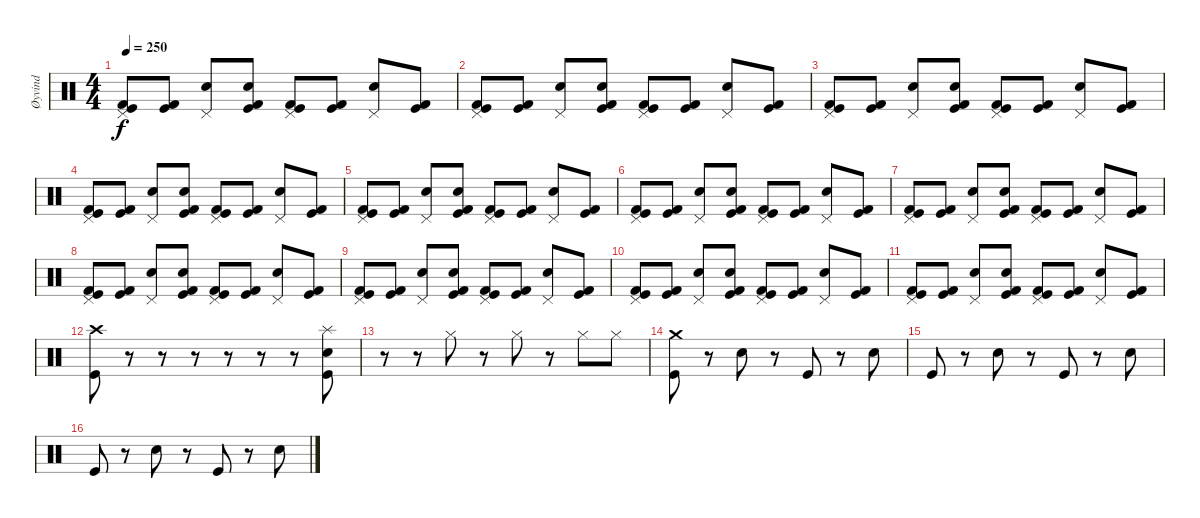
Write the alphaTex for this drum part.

\track ("Øyvind" "Øyvind") {instrument percussion}
\staff {score}
\articulation defaults
\ts (4 4)
\tempo 250
\clef neutral
\ks c
("Kick (hit) 2" "Pedal Hi-Hat (hit)" "Kick (hit)").8{dy f} ("Kick (hit) 2" "Kick (hit)").8 ("Snare (hit) 2" "Pedal Hi-Hat (hit)").8 ("Kick (hit) 2" "Snare (hit)" "Kick (hit)").8 ("Kick (hit) 2" "Pedal Hi-Hat (hit)" "Kick (hit)").8 ("Kick (hit) 2" "Kick (hit)").8 ("Snare (hit) 2" "Pedal Hi-Hat (hit)").8 ("Kick (hit) 2" "Kick (hit)").8 |
("Kick (hit) 2" "Pedal Hi-Hat (hit)" "Kick (hit)").8 ("Kick (hit) 2" "Kick (hit)").8 ("Snare (hit) 2" "Pedal Hi-Hat (hit)").8 ("Kick (hit) 2" "Snare (hit)" "Kick (hit)").8 ("Kick (hit) 2" "Pedal Hi-Hat (hit)" "Kick (hit)").8 ("Kick (hit) 2" "Kick (hit)").8 ("Snare (hit) 2" "Pedal Hi-Hat (hit)").8 ("Kick (hit) 2" "Kick (hit)").8 |
("Kick (hit) 2" "Pedal Hi-Hat (hit)" "Kick (hit)").8 ("Kick (hit) 2" "Kick (hit)").8 ("Snare (hit) 2" "Pedal Hi-Hat (hit)").8 ("Kick (hit) 2" "Snare (hit)" "Kick (hit)").8 ("Kick (hit) 2" "Pedal Hi-Hat (hit)" "Kick (hit)").8 ("Kick (hit) 2" "Kick (hit)").8 ("Snare (hit) 2" "Pedal Hi-Hat (hit)").8 ("Kick (hit) 2" "Kick (hit)").8 |
("Kick (hit) 2" "Pedal Hi-Hat (hit)" "Kick (hit)").8 ("Kick (hit) 2" "Kick (hit)").8 ("Snare (hit) 2" "Pedal Hi-Hat (hit)").8 ("Kick (hit) 2" "Snare (hit)" "Kick (hit)").8 ("Kick (hit) 2" "Pedal Hi-Hat (hit)" "Kick (hit)").8 ("Kick (hit) 2" "Kick (hit)").8 ("Snare (hit) 2" "Pedal Hi-Hat (hit)").8 ("Kick (hit) 2" "Kick (hit)").8 |
("Kick (hit) 2" "Pedal Hi-Hat (hit)" "Kick (hit)").8 ("Kick (hit) 2" "Kick (hit)").8 ("Snare (hit) 2" "Pedal Hi-Hat (hit)").8 ("Kick (hit) 2" "Snare (hit)" "Kick (hit)").8 ("Kick (hit) 2" "Pedal Hi-Hat (hit)" "Kick (hit)").8 ("Kick (hit) 2" "Kick (hit)").8 ("Snare (hit) 2" "Pedal Hi-Hat (hit)").8 ("Kick (hit) 2" "Kick (hit)").8 |
("Kick (hit) 2" "Pedal Hi-Hat (hit)" "Kick (hit)").8 ("Kick (hit) 2" "Kick (hit)").8 ("Snare (hit) 2" "Pedal Hi-Hat (hit)").8 ("Kick (hit) 2" "Snare (hit)" "Kick (hit)").8 ("Kick (hit) 2" "Pedal Hi-Hat (hit)" "Kick (hit)").8 ("Kick (hit) 2" "Kick (hit)").8 ("Snare (hit) 2" "Pedal Hi-Hat (hit)").8 ("Kick (hit) 2" "Kick (hit)").8 |
("Kick (hit) 2" "Pedal Hi-Hat (hit)" "Kick (hit)").8 ("Kick (hit) 2" "Kick (hit)").8 ("Snare (hit) 2" "Pedal Hi-Hat (hit)").8 ("Kick (hit) 2" "Snare (hit)" "Kick (hit)").8 ("Kick (hit) 2" "Pedal Hi-Hat (hit)" "Kick (hit)").8 ("Kick (hit) 2" "Kick (hit)").8 ("Snare (hit) 2" "Pedal Hi-Hat (hit)").8 ("Kick (hit) 2" "Kick (hit)").8 |
("Kick (hit) 2" "Pedal Hi-Hat (hit)" "Kick (hit)").8 ("Kick (hit) 2" "Kick (hit)").8 ("Snare (hit) 2" "Pedal Hi-Hat (hit)").8 ("Kick (hit) 2" "Snare (hit)" "Kick (hit)").8 ("Kick (hit) 2" "Pedal Hi-Hat (hit)" "Kick (hit)").8 ("Kick (hit) 2" "Kick (hit)").8 ("Snare (hit) 2" "Pedal Hi-Hat (hit)").8 ("Kick (hit) 2" "Kick (hit)").8 |
("Kick (hit) 2" "Pedal Hi-Hat (hit)" "Kick (hit)").8 ("Kick (hit) 2" "Kick (hit)").8 ("Snare (hit) 2" "Pedal Hi-Hat (hit)").8 ("Kick (hit) 2" "Snare (hit)" "Kick (hit)").8 ("Kick (hit) 2" "Pedal Hi-Hat (hit)" "Kick (hit)").8 ("Kick (hit) 2" "Kick (hit)").8 ("Snare (hit) 2" "Pedal Hi-Hat (hit)").8 ("Kick (hit) 2" "Kick (hit)").8 |
("Kick (hit) 2" "Pedal Hi-Hat (hit)" "Kick (hit)").8 ("Kick (hit) 2" "Kick (hit)").8 ("Snare (hit) 2" "Pedal Hi-Hat (hit)").8 ("Kick (hit) 2" "Snare (hit)" "Kick (hit)").8 ("Kick (hit) 2" "Pedal Hi-Hat (hit)" "Kick (hit)").8 ("Kick (hit) 2" "Kick (hit)").8 ("Snare (hit) 2" "Pedal Hi-Hat (hit)").8 ("Kick (hit) 2" "Kick (hit)").8 |
("Kick (hit) 2" "Pedal Hi-Hat (hit)" "Kick (hit)").8 ("Kick (hit) 2" "Kick (hit)").8 ("Snare (hit) 2" "Pedal Hi-Hat (hit)").8 ("Kick (hit) 2" "Snare (hit)" "Kick (hit)").8 ("Kick (hit) 2" "Pedal Hi-Hat (hit)" "Kick (hit)").8 ("Kick (hit) 2" "Kick (hit)").8 ("Snare (hit) 2" "Pedal Hi-Hat (hit)").8 ("Kick (hit) 2" "Kick (hit)").8 |
("Crash high (hit)" "Kick (hit)").8 r.8 r.8 r.8 r.8 r.8 r.8 ("Splash (hit)" "Snare (hit) 2" "Kick (hit)").8 |
r.8 r.8 "Hi-Hat (closed)".8 r.8 "Hi-Hat (closed)".8 r.8 "Hi-Hat (closed)".8 "Hi-Hat (closed)".8 |
("Crash medium (hit)" "Kick (hit)").8 r.8 "Snare (hit) 2".8 r.8 "Kick (hit)".8 r.8 "Snare (hit) 2".8 |
"Kick (hit)".8 r.8 "Snare (hit) 2".8 r.8 "Kick (hit)".8 r.8 "Snare (hit) 2".8 |
"Kick (hit)".8 r.8 "Snare (hit) 2".8 r.8 "Kick (hit)".8 r.8 "Snare (hit) 2".8
